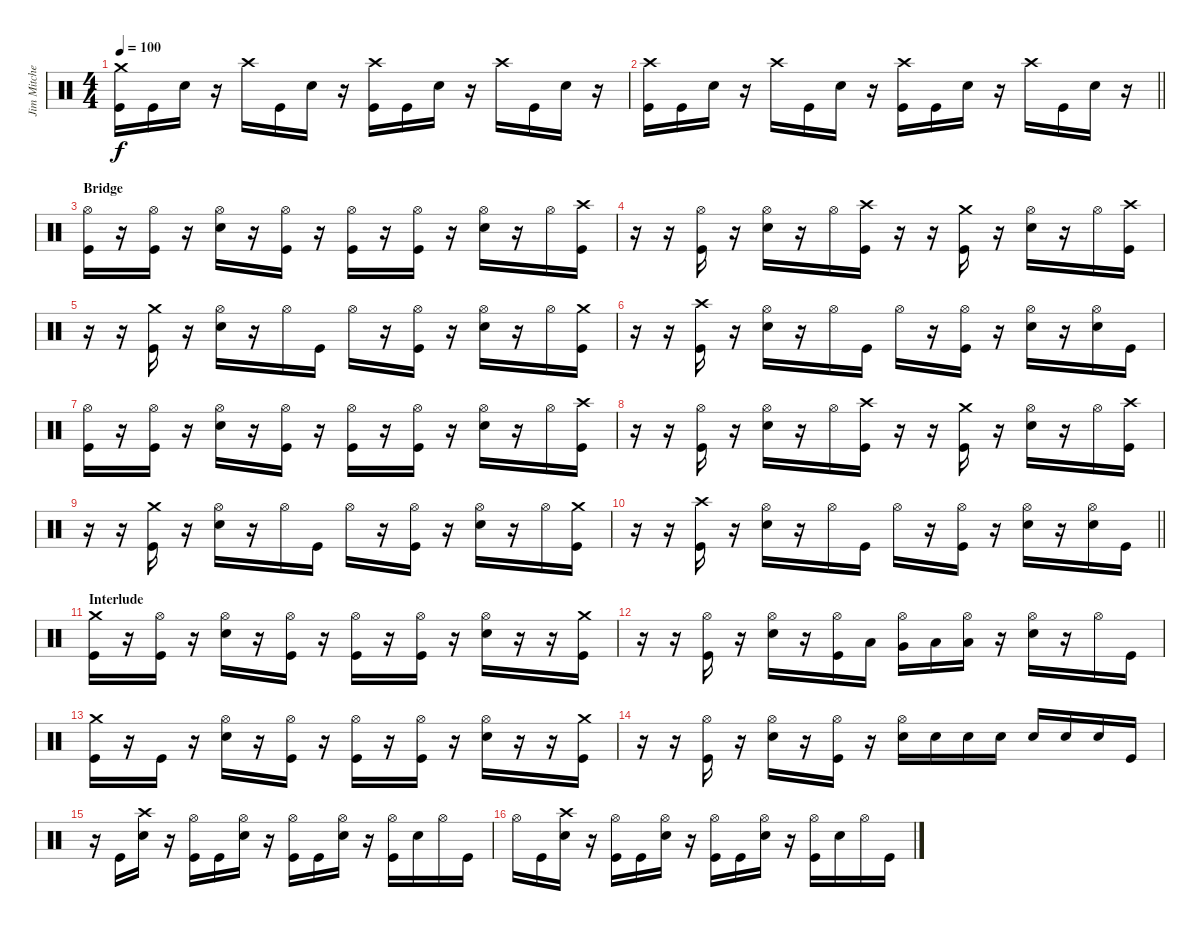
\track ("Jim Mitchell" "Jim Mitche") {instrument percussion}
\staff {score}
\articulation defaults
\ts (4 4)
\tempo 100
\clef neutral
\ks c
("Crash medium (hit)" "Kick (hit)").16{dy f} "Kick (hit)".16 "Snare (hit) 2".16 r.16 "Crash high (hit)".16 "Kick (hit)".16 "Snare (hit) 2".16 r.16 ("Crash high (hit)" "Kick (hit)").16 "Kick (hit)".16 "Snare (hit) 2".16 r.16 "Crash high (hit)".16 "Kick (hit)".16 "Snare (hit) 2".16 r.16 |
\barLineRight lightlight
("Crash high (hit)" "Kick (hit)").16 "Kick (hit)".16 "Snare (hit) 2".16 r.16 "Crash high (hit)".16 "Kick (hit)".16 "Snare (hit) 2".16 r.16 ("Crash high (hit)" "Kick (hit)").16 "Kick (hit)".16 "Snare (hit) 2".16 r.16 "Crash high (hit)".16 "Kick (hit)".16 "Snare (hit) 2".16 r.16 |
\section ("" "Bridge")
("Hi-Hat (open)" "Kick (hit)").16 r.16 ("Hi-Hat (open)" "Kick (hit)").16 r.16 ("Hi-Hat (open)" "Snare (hit) 2").16 r.16 ("Hi-Hat (open)" "Kick (hit)").16 r.16 ("Hi-Hat (open)" "Kick (hit)").16 r.16 ("Hi-Hat (open)" "Kick (hit)").16 r.16 ("Hi-Hat (open)" "Snare (hit) 2").16 r.16 "Hi-Hat (open)".16 ("Crash high (hit)" "Kick (hit)").16 |
r.16 r.16 ("Hi-Hat (open)" "Kick (hit)").16 r.16 ("Hi-Hat (open)" "Snare (hit) 2").16 r.16 "Hi-Hat (open)".16 ("Crash high (hit)" "Kick (hit)").16 r.16 r.16 ("Crash medium (hit)" "Kick (hit)").16 r.16 ("Hi-Hat (open)" "Snare (hit) 2").16 r.16 "Hi-Hat (open)".16 ("Crash high (hit)" "Kick (hit)").16 |
r.16 r.16 ("Crash medium (hit)" "Kick (hit)").16 r.16 ("Hi-Hat (open)" "Snare (hit) 2").16 r.16 "Hi-Hat (open)".16 "Kick (hit)".16 "Hi-Hat (open)".16 r.16 ("Hi-Hat (open)" "Kick (hit)").16 r.16 ("Hi-Hat (open)" "Snare (hit) 2").16 r.16 "Hi-Hat (open)".16 ("Crash medium (hit)" "Kick (hit)").16 |
r.16 r.16 ("Crash high (hit)" "Kick (hit)").16 r.16 ("Hi-Hat (open)" "Snare (hit) 2").16 r.16 "Hi-Hat (open)".16 "Kick (hit)".16 "Hi-Hat (open)".16 r.16 ("Hi-Hat (open)" "Kick (hit)").16 r.16 ("Hi-Hat (open)" "Snare (hit) 2").16 r.16 ("Hi-Hat (open)" "Snare (hit) 2").16 "Kick (hit)".16 |
("Hi-Hat (open)" "Kick (hit)").16 r.16 ("Hi-Hat (open)" "Kick (hit)").16 r.16 ("Hi-Hat (open)" "Snare (hit) 2").16 r.16 ("Hi-Hat (open)" "Kick (hit)").16 r.16 ("Hi-Hat (open)" "Kick (hit)").16 r.16 ("Hi-Hat (open)" "Kick (hit)").16 r.16 ("Hi-Hat (open)" "Snare (hit) 2").16 r.16 "Hi-Hat (open)".16 ("Crash high (hit)" "Kick (hit)").16 |
r.16 r.16 ("Hi-Hat (open)" "Kick (hit)").16 r.16 ("Hi-Hat (open)" "Snare (hit) 2").16 r.16 "Hi-Hat (open)".16 ("Crash high (hit)" "Kick (hit)").16 r.16 r.16 ("Crash medium (hit)" "Kick (hit)").16 r.16 ("Hi-Hat (open)" "Snare (hit) 2").16 r.16 "Hi-Hat (open)".16 ("Crash high (hit)" "Kick (hit)").16 |
r.16 r.16 ("Crash medium (hit)" "Kick (hit)").16 r.16 ("Hi-Hat (open)" "Snare (hit) 2").16 r.16 "Hi-Hat (open)".16 "Kick (hit)".16 "Hi-Hat (open)".16 r.16 ("Hi-Hat (open)" "Kick (hit)").16 r.16 ("Hi-Hat (open)" "Snare (hit) 2").16 r.16 "Hi-Hat (open)".16 ("Crash medium (hit)" "Kick (hit)").16 |
\barLineRight lightlight
r.16 r.16 ("Crash high (hit)" "Kick (hit)").16 r.16 ("Hi-Hat (open)" "Snare (hit) 2").16 r.16 "Hi-Hat (open)".16 "Kick (hit)".16 "Hi-Hat (open)".16 r.16 ("Hi-Hat (open)" "Kick (hit)").16 r.16 ("Hi-Hat (open)" "Snare (hit) 2").16 r.16 ("Hi-Hat (open)" "Snare (hit) 2").16 "Kick (hit)".16 |
\section ("" "Interlude")
("Crash medium (hit)" "Kick (hit)").16 r.16 ("Hi-Hat (open)" "Kick (hit)").16 r.16 ("Hi-Hat (open)" "Snare (hit) 2").16 r.16 ("Hi-Hat (open)" "Kick (hit)").16 r.16 ("Hi-Hat (open)" "Kick (hit)").16 r.16 ("Hi-Hat (open)" "Kick (hit)").16 r.16 ("Hi-Hat (open)" "Snare (hit) 2").16 r.16 r.16 ("Crash medium (hit)" "Kick (hit)").16 |
r.16 r.16 ("Hi-Hat (open)" "Kick (hit)").16 r.16 ("Hi-Hat (open)" "Snare (hit) 2").16 r.16 ("Hi-Hat (open)" "Kick (hit)").16 "Low Tom (hit)".16 ("Hi-Hat (open)" "Very Low Tom (hit)").16 "Low Floor Tom (hit)".16 ("Hi-Hat (open)" "Low Floor Tom (hit)").16 r.16 ("Hi-Hat (open)" "Snare (hit) 2").16 r.16 "Hi-Hat (open)".16 "Kick (hit)".16 |
("Crash medium (hit)" "Kick (hit)").16 r.16 "Kick (hit)".16 r.16 ("Hi-Hat (open)" "Snare (hit) 2").16 r.16 ("Hi-Hat (open)" "Kick (hit)").16 r.16 ("Hi-Hat (open)" "Kick (hit)").16 r.16 ("Hi-Hat (open)" "Kick (hit)").16 r.16 ("Hi-Hat (open)" "Snare (hit) 2").16 r.16 r.16 ("Crash medium (hit)" "Kick (hit)").16 |
r.16 r.16 ("Hi-Hat (open)" "Kick (hit)").16 r.16 ("Hi-Hat (open)" "Snare (hit) 2").16 r.16 ("Hi-Hat (open)" "Kick (hit)").16 r.16 ("Hi-Hat (open)" "Snare (hit) 2").16 "Snare (hit) 2".16 "Snare (hit) 2".16 "Snare (hit) 2".16 "Snare (hit) 2".16 "Snare (hit) 2".16 "Snare (hit) 2".16 "Kick (hit)".16 |
r.16 "Kick (hit)".16 ("Crash high (hit)" "Snare (hit) 2").16 r.16 ("Hi-Hat (open)" "Kick (hit)").16 "Kick (hit)".16 ("Hi-Hat (open)" "Snare (hit) 2").16 r.16 ("Hi-Hat (open)" "Kick (hit)").16 "Kick (hit)".16 ("Hi-Hat (open)" "Snare (hit) 2").16 r.16 ("Hi-Hat (open)" "Kick (hit)").16 "Snare (hit) 2".16 "Hi-Hat (open)".16 "Kick (hit)".16 |
"Hi-Hat (open)".16 "Kick (hit)".16 ("Crash high (hit)" "Snare (hit) 2").16 r.16 ("Hi-Hat (open)" "Kick (hit)").16 "Kick (hit)".16 ("Hi-Hat (open)" "Snare (hit) 2").16 r.16 ("Hi-Hat (open)" "Kick (hit)").16 "Kick (hit)".16 ("Hi-Hat (open)" "Snare (hit) 2").16 r.16 ("Hi-Hat (open)" "Kick (hit)").16 "Snare (hit) 2".16 "Hi-Hat (open)".16 "Kick (hit)".16
